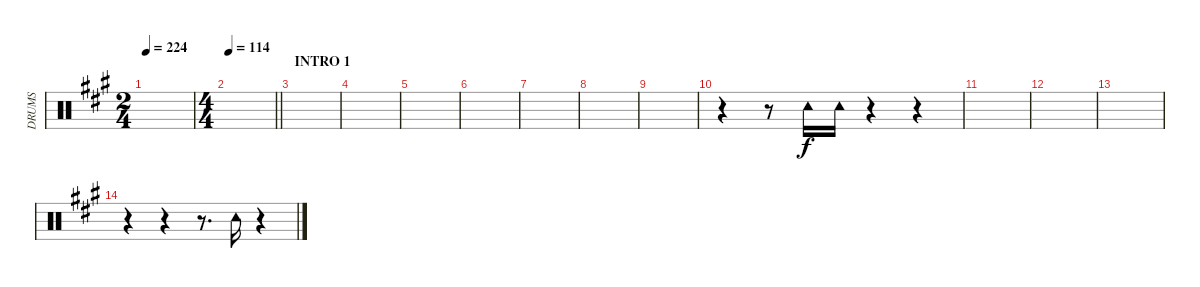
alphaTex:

\track ("DRUMS" "DRUMS") {instrument percussion}
\staff {score}
\articulation defaults
\ts (2 4)
\tempo 224
\clef neutral
\ks a
|
\ts (4 4)
\tempo 114
\barLineRight lightlight
|
\section ("" "INTRO 1")
|
|
|
|
|
|
|
r.4 r.8{volume 6} "Tambourine (hit)".16 "Tambourine (hit)".16 r.4 r.4 |
|
|
|
r.4 r.4 r.8{d} "Tambourine (hit)".16 r.4
